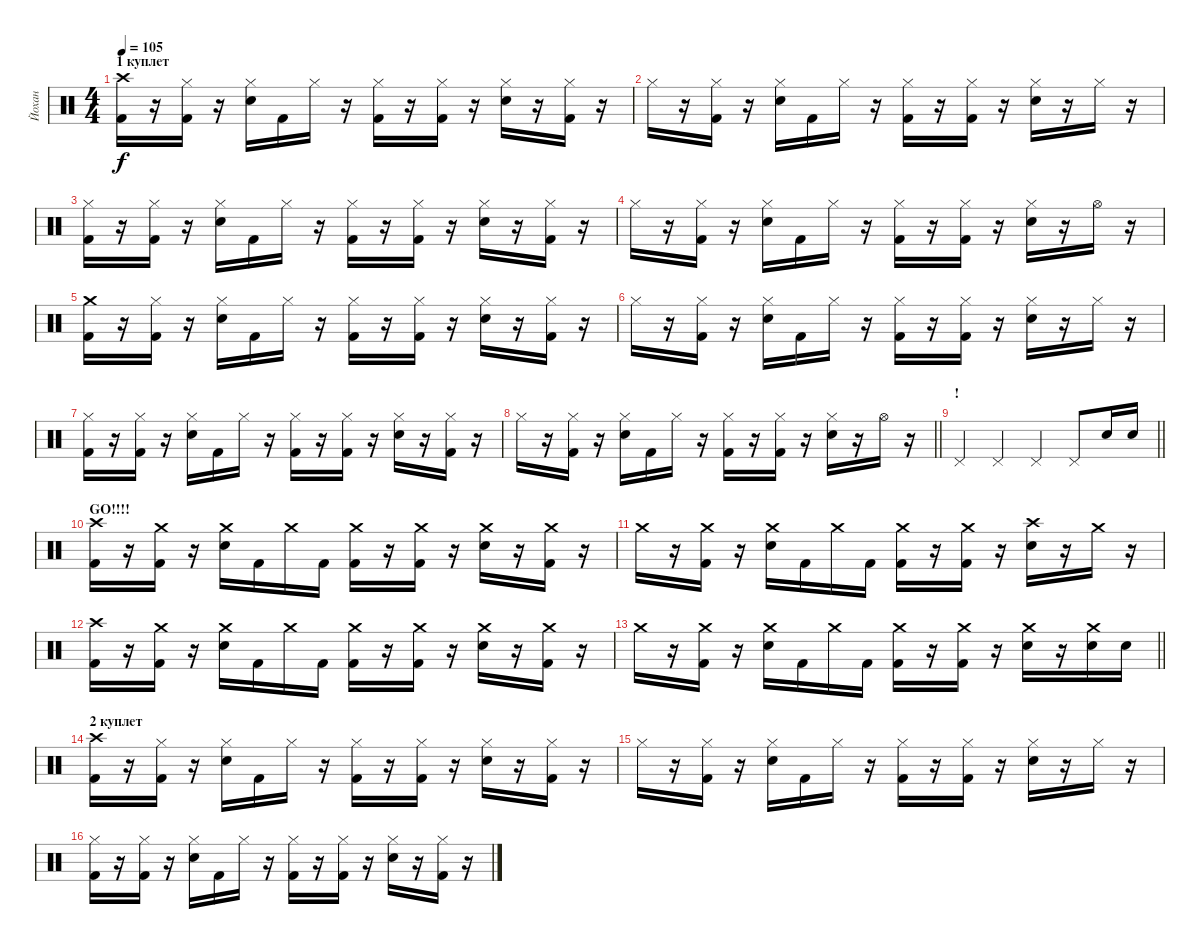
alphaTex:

\track ("Йохан" "Йохан") {instrument percussion}
\staff {score}
\articulation defaults
\ts (4 4)
\section ("" "1 куплет")
\tempo 105
\clef neutral
\ks c
("Crash high (hit)" "Kick (hit) 2").16{dy f} r.16 ("Hi-Hat (closed)" "Kick (hit) 2").16 r.16 ("Hi-Hat (closed)" "Snare (hit) 2").16 "Kick (hit) 2".16 "Hi-Hat (closed)".16 r.16 ("Hi-Hat (closed)" "Kick (hit) 2").16 r.16 ("Hi-Hat (closed)" "Kick (hit) 2").16 r.16 ("Hi-Hat (closed)" "Snare (hit) 2").16 r.16 ("Hi-Hat (closed)" "Kick (hit) 2").16 r.16 |
"Hi-Hat (closed)".16 r.16 ("Hi-Hat (closed)" "Kick (hit) 2").16 r.16 ("Hi-Hat (closed)" "Snare (hit) 2").16 "Kick (hit) 2".16 "Hi-Hat (closed)".16 r.16 ("Hi-Hat (closed)" "Kick (hit) 2").16 r.16 ("Hi-Hat (closed)" "Kick (hit) 2").16 r.16 ("Hi-Hat (closed)" "Snare (hit) 2").16 r.16 "Hi-Hat (closed)".16 r.16 |
("Hi-Hat (closed)" "Kick (hit) 2").16 r.16 ("Hi-Hat (closed)" "Kick (hit) 2").16 r.16 ("Hi-Hat (closed)" "Snare (hit) 2").16 "Kick (hit) 2".16 "Hi-Hat (closed)".16 r.16 ("Hi-Hat (closed)" "Kick (hit) 2").16 r.16 ("Hi-Hat (closed)" "Kick (hit) 2").16 r.16 ("Hi-Hat (closed)" "Snare (hit) 2").16 r.16 ("Hi-Hat (closed)" "Kick (hit) 2").16 r.16 |
"Hi-Hat (closed)".16 r.16 ("Hi-Hat (closed)" "Kick (hit) 2").16 r.16 ("Hi-Hat (closed)" "Snare (hit) 2").16 "Kick (hit) 2".16 "Hi-Hat (closed)".16 r.16 ("Hi-Hat (closed)" "Kick (hit) 2").16 r.16 ("Hi-Hat (closed)" "Kick (hit) 2").16 r.16 ("Hi-Hat (closed)" "Snare (hit) 2").16 r.16 "Hi-Hat (open)".16 r.16 |
("Crash medium (hit)" "Kick (hit) 2").16 r.16 ("Hi-Hat (closed)" "Kick (hit) 2").16 r.16 ("Hi-Hat (closed)" "Snare (hit) 2").16 "Kick (hit) 2".16 "Hi-Hat (closed)".16 r.16 ("Hi-Hat (closed)" "Kick (hit) 2").16 r.16 ("Hi-Hat (closed)" "Kick (hit) 2").16 r.16 ("Hi-Hat (closed)" "Snare (hit) 2").16 r.16 ("Hi-Hat (closed)" "Kick (hit) 2").16 r.16 |
"Hi-Hat (closed)".16 r.16 ("Hi-Hat (closed)" "Kick (hit) 2").16 r.16 ("Hi-Hat (closed)" "Snare (hit) 2").16 "Kick (hit) 2".16 "Hi-Hat (closed)".16 r.16 ("Hi-Hat (closed)" "Kick (hit) 2").16 r.16 ("Hi-Hat (closed)" "Kick (hit) 2").16 r.16 ("Hi-Hat (closed)" "Snare (hit) 2").16 r.16 "Hi-Hat (closed)".16 r.16 |
("Hi-Hat (closed)" "Kick (hit) 2").16 r.16 ("Hi-Hat (closed)" "Kick (hit) 2").16 r.16 ("Hi-Hat (closed)" "Snare (hit) 2").16 "Kick (hit) 2".16 "Hi-Hat (closed)".16 r.16 ("Hi-Hat (closed)" "Kick (hit) 2").16 r.16 ("Hi-Hat (closed)" "Kick (hit) 2").16 r.16 ("Hi-Hat (closed)" "Snare (hit) 2").16 r.16 ("Hi-Hat (closed)" "Kick (hit) 2").16 r.16 |
\barLineRight lightlight "Hi-Hat (closed)".16
r.16 ("Hi-Hat (closed)" "Kick (hit) 2").16 r.16 ("Hi-Hat (closed)" "Snare (hit) 2").16 "Kick (hit) 2".16 "Hi-Hat (closed)".16 r.16 ("Hi-Hat (closed)" "Kick (hit) 2").16 r.16 ("Hi-Hat (closed)" "Kick (hit) 2").16 r.16 ("Hi-Hat (closed)" "Snare (hit) 2").16 r.16 "Hi-Hat (open)".16 r.16 |
\section ("" "!")
\barLineRight lightlight "Pedal Hi-Hat (hit)".4 "Pedal Hi-Hat (hit)".4 "Pedal Hi-Hat (hit)".4 "Pedal Hi-Hat (hit)".8 "Snare (hit) 2".16 "Snare (hit) 2".16
|
\section ("" "GO!!!!")
("Crash high (hit)" "Kick (hit) 2").16 r.16 ("Crash medium (hit)" "Kick (hit) 2").16 r.16 ("Crash medium (hit)" "Snare (hit) 2").16 "Kick (hit) 2".16 "Crash medium (hit)".16 "Kick (hit) 2".16 ("Crash medium (hit)" "Kick (hit) 2").16 r.16 ("Crash medium (hit)" "Kick (hit) 2").16 r.16 ("Crash medium (hit)" "Snare (hit) 2").16 r.16 ("Crash medium (hit)" "Kick (hit) 2").16 r.16 |
"Crash medium (hit)".16 r.16 ("Crash medium (hit)" "Kick (hit) 2").16 r.16 ("Crash medium (hit)" "Snare (hit) 2").16 "Kick (hit) 2".16 "Crash medium (hit)".16 "Kick (hit) 2".16 ("Crash medium (hit)" "Kick (hit) 2").16 r.16 ("Crash medium (hit)" "Kick (hit) 2").16 r.16 ("Crash high (hit)" "Snare (hit) 2").16 r.16 "Crash medium (hit)".16 r.16 |
("Crash high (hit)" "Kick (hit) 2").16 r.16 ("Crash medium (hit)" "Kick (hit) 2").16 r.16 ("Crash medium (hit)" "Snare (hit) 2").16 "Kick (hit) 2".16 "Crash medium (hit)".16 "Kick (hit) 2".16 ("Crash medium (hit)" "Kick (hit) 2").16 r.16 ("Crash medium (hit)" "Kick (hit) 2").16 r.16 ("Crash medium (hit)" "Snare (hit) 2").16 r.16 ("Crash medium (hit)" "Kick (hit) 2").16 r.16 |
\barLineRight lightlight "Crash medium (hit)".16
r.16 ("Crash medium (hit)" "Kick (hit) 2").16 r.16 ("Crash medium (hit)" "Snare (hit) 2").16 "Kick (hit) 2".16 "Crash medium (hit)".16 "Kick (hit) 2".16 ("Crash medium (hit)" "Kick (hit) 2").16 r.16 ("Crash medium (hit)" "Kick (hit) 2").16 r.16 ("Crash medium (hit)" "Snare (hit) 2").16 r.16 ("Crash medium (hit)" "Snare (hit) 2").16 "Snare (hit) 2".16 |
\section ("" "2 куплет")
("Crash high (hit)" "Kick (hit) 2").16 r.16 ("Hi-Hat (closed)" "Kick (hit) 2").16 r.16 ("Hi-Hat (closed)" "Snare (hit) 2").16 "Kick (hit) 2".16 "Hi-Hat (closed)".16 r.16 ("Hi-Hat (closed)" "Kick (hit) 2").16 r.16 ("Hi-Hat (closed)" "Kick (hit) 2").16 r.16 ("Hi-Hat (closed)" "Snare (hit) 2").16 r.16 ("Hi-Hat (closed)" "Kick (hit) 2").16 r.16 |
"Hi-Hat (closed)".16 r.16 ("Hi-Hat (closed)" "Kick (hit) 2").16 r.16 ("Hi-Hat (closed)" "Snare (hit) 2").16 "Kick (hit) 2".16 "Hi-Hat (closed)".16 r.16 ("Hi-Hat (closed)" "Kick (hit) 2").16 r.16 ("Hi-Hat (closed)" "Kick (hit) 2").16 r.16 ("Hi-Hat (closed)" "Snare (hit) 2").16 r.16 "Hi-Hat (closed)".16 r.16 |
("Hi-Hat (closed)" "Kick (hit) 2").16 r.16 ("Hi-Hat (closed)" "Kick (hit) 2").16 r.16 ("Hi-Hat (closed)" "Snare (hit) 2").16 "Kick (hit) 2".16 "Hi-Hat (closed)".16 r.16 ("Hi-Hat (closed)" "Kick (hit) 2").16 r.16 ("Hi-Hat (closed)" "Kick (hit) 2").16 r.16 ("Hi-Hat (closed)" "Snare (hit) 2").16 r.16 ("Hi-Hat (closed)" "Kick (hit) 2").16 r.16
